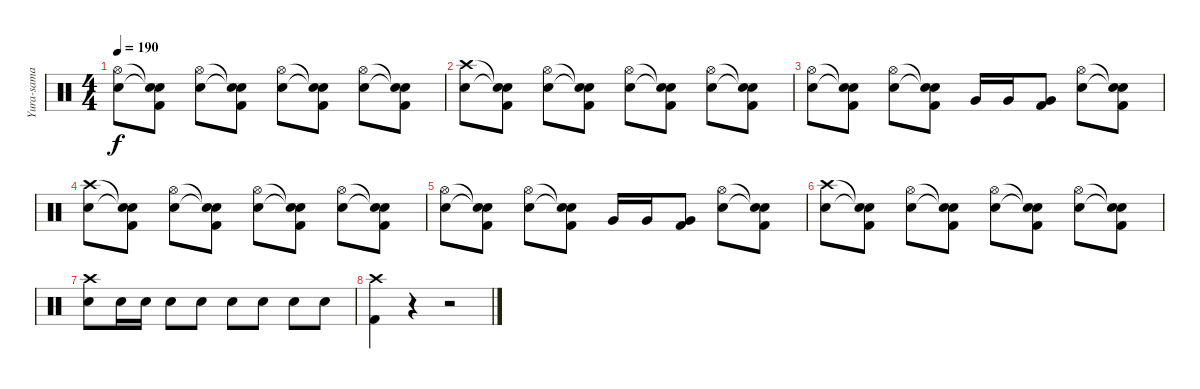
\track ("Yura-sama" "Yura-sama") {instrument percussion}
\staff {score}
\articulation defaults
\ts (4 4)
\tempo 190
\clef neutral
\ks c
("Hi-Hat (open)" "Electric Snare (hit)").8{dy f} ("Snare (hit)"{t} "Snare (hit)"{t} "Kick (hit) 2").8 ("Hi-Hat (open)" "Electric Snare (hit)").8 ("Snare (hit)"{t} "Snare (hit)"{t} "Kick (hit) 2").8 ("Hi-Hat (open)" "Electric Snare (hit)").8 ("Snare (hit)"{t} "Snare (hit)"{t} "Kick (hit) 2").8 ("Hi-Hat (open)" "Electric Snare (hit)").8 ("Snare (hit)"{t} "Snare (hit)"{t} "Kick (hit) 2").8 |
("Crash high (hit)" "Electric Snare (hit)").8 ("Snare (hit)"{t} "Snare (hit)"{t} "Kick (hit) 2").8 ("Hi-Hat (open)" "Electric Snare (hit)").8 ("Snare (hit)"{t} "Snare (hit)"{t} "Kick (hit) 2").8 ("Hi-Hat (open)" "Electric Snare (hit)").8 ("Snare (hit)"{t} "Snare (hit)"{t} "Kick (hit) 2").8 ("Hi-Hat (open)" "Electric Snare (hit)").8 ("Snare (hit)"{t} "Snare (hit)"{t} "Kick (hit) 2").8 |
("Hi-Hat (open)" "Electric Snare (hit)").8 ("Snare (hit)"{t} "Snare (hit)"{t} "Kick (hit) 2").8 ("Hi-Hat (open)" "Electric Snare (hit)").8 ("Snare (hit)"{t} "Snare (hit)"{t} "Kick (hit) 2").8 "Very Low Tom (hit)".16 "Very Low Tom (hit)".16 ("Very Low Tom (hit)" "Kick (hit) 2").8 ("Hi-Hat (open)" "Electric Snare (hit)").8 ("Snare (hit)"{t} "Snare (hit)"{t} "Kick (hit) 2").8 |
("Crash high (hit)" "Electric Snare (hit)").8 ("Snare (hit)"{t} "Snare (hit)"{t} "Kick (hit) 2").8 ("Hi-Hat (open)" "Electric Snare (hit)").8 ("Snare (hit)"{t} "Snare (hit)"{t} "Kick (hit) 2").8 ("Hi-Hat (open)" "Electric Snare (hit)").8 ("Snare (hit)"{t} "Snare (hit)"{t} "Kick (hit) 2").8 ("Hi-Hat (open)" "Electric Snare (hit)").8 ("Snare (hit)"{t} "Snare (hit)"{t} "Kick (hit) 2").8 |
("Hi-Hat (open)" "Electric Snare (hit)").8 ("Snare (hit)"{t} "Snare (hit)"{t} "Kick (hit) 2").8 ("Hi-Hat (open)" "Electric Snare (hit)").8 ("Snare (hit)"{t} "Snare (hit)"{t} "Kick (hit) 2").8 "Very Low Tom (hit)".16 "Very Low Tom (hit)".16 ("Very Low Tom (hit)" "Kick (hit) 2").8 ("Hi-Hat (open)" "Electric Snare (hit)").8 ("Snare (hit)"{t} "Snare (hit)"{t} "Kick (hit) 2").8 |
("Crash high (hit)" "Electric Snare (hit)").8 ("Snare (hit)"{t} "Snare (hit)"{t} "Kick (hit) 2").8 ("Hi-Hat (open)" "Electric Snare (hit)").8 ("Snare (hit)"{t} "Snare (hit)"{t} "Kick (hit) 2").8 ("Hi-Hat (open)" "Electric Snare (hit)").8 ("Snare (hit)"{t} "Snare (hit)"{t} "Kick (hit) 2").8 ("Hi-Hat (open)" "Electric Snare (hit)").8 ("Snare (hit)"{t} "Snare (hit)"{t} "Kick (hit) 2").8 |
("Crash high (hit)" "Electric Snare (hit)").8 "Electric Snare (hit)".16 "Electric Snare (hit)".16 "Electric Snare (hit)".8 "Electric Snare (hit)".8 "Electric Snare (hit)".8 "Electric Snare (hit)".8 "Electric Snare (hit)".8 "Electric Snare (hit)".8 |
("Crash high (hit)" "Kick (hit) 2").4 r.4 r.2
